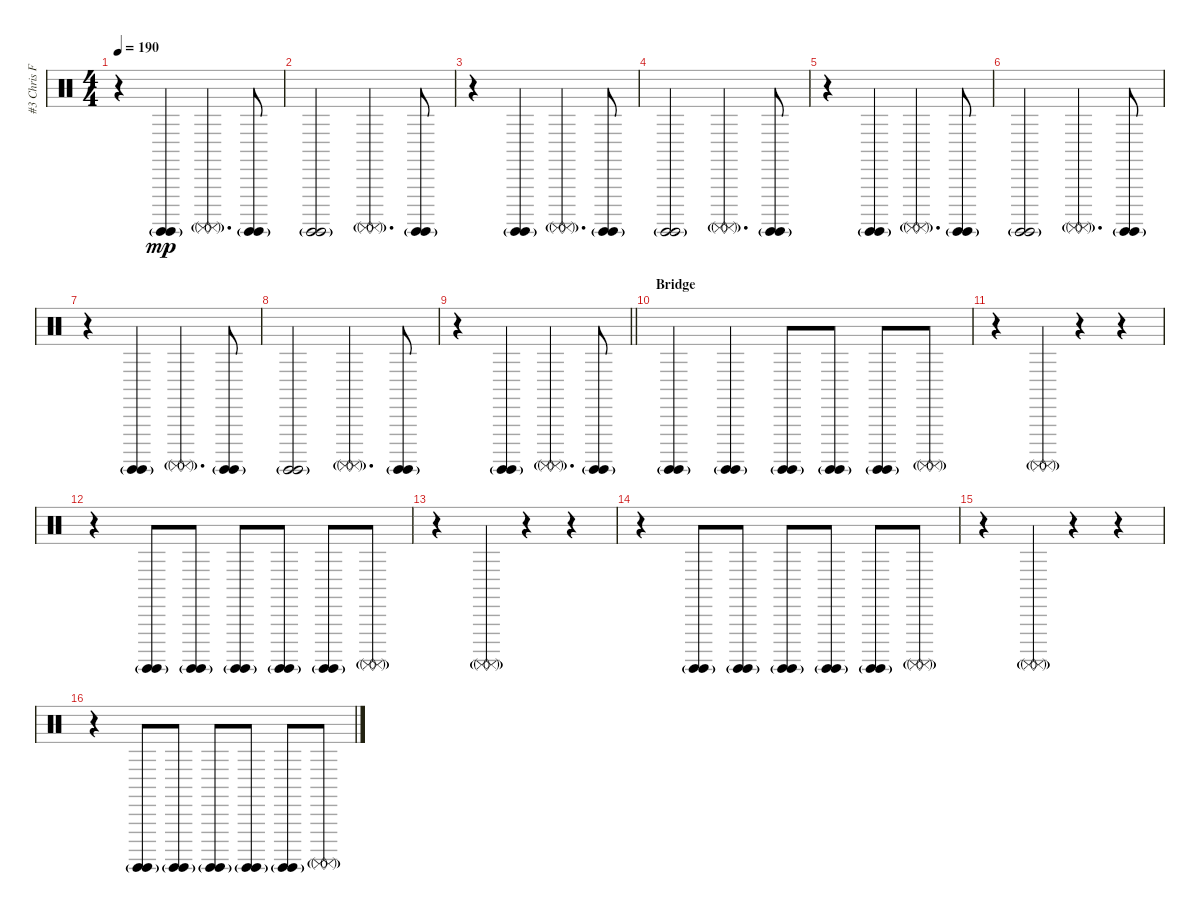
\track ("#3 Chris Fehn" "#3 Chris F") {instrument percussion}
\staff {score}
\articulation defaults
\ts (4 4)
\tempo 190
\clef neutral
\ks c
r.4{dy mp} ("Surdo (hit)"{g} "Surdo (hit)"{g}).4 ("Surdo (mute)"{g} "Surdo (mute)"{g}).4{d} ("Surdo (hit)"{g} "Surdo (hit)"{g}).8 |
("Surdo (hit)"{g} "Surdo (hit)"{g}).2 ("Surdo (mute)"{g} "Surdo (mute)"{g}).4{d} ("Surdo (hit)"{g} "Surdo (hit)"{g}).8 |
r.4 ("Surdo (hit)"{g} "Surdo (hit)"{g}).4 ("Surdo (mute)"{g} "Surdo (mute)"{g}).4{d} ("Surdo (hit)"{g} "Surdo (hit)"{g}).8 |
("Surdo (hit)"{g} "Surdo (hit)"{g}).2 ("Surdo (mute)"{g} "Surdo (mute)"{g}).4{d} ("Surdo (hit)"{g} "Surdo (hit)"{g}).8 |
r.4 ("Surdo (hit)"{g} "Surdo (hit)"{g}).4 ("Surdo (mute)"{g} "Surdo (mute)"{g}).4{d} ("Surdo (hit)"{g} "Surdo (hit)"{g}).8 |
("Surdo (hit)"{g} "Surdo (hit)"{g}).2 ("Surdo (mute)"{g} "Surdo (mute)"{g}).4{d} ("Surdo (hit)"{g} "Surdo (hit)"{g}).8 |
r.4 ("Surdo (hit)"{g} "Surdo (hit)"{g}).4 ("Surdo (mute)"{g} "Surdo (mute)"{g}).4{d} ("Surdo (hit)"{g} "Surdo (hit)"{g}).8 |
("Surdo (hit)"{g} "Surdo (hit)"{g}).2 ("Surdo (mute)"{g} "Surdo (mute)"{g}).4{d} ("Surdo (hit)"{g} "Surdo (hit)"{g}).8 |
\barLineRight lightlight
r.4 ("Surdo (hit)"{g} "Surdo (hit)"{g}).4 ("Surdo (mute)"{g} "Surdo (mute)"{g}).4{d} ("Surdo (hit)"{g} "Surdo (hit)"{g}).8 |
\section ("" "Bridge")
("Surdo (hit)"{g} "Surdo (hit)"{g}).4 ("Surdo (hit)"{g} "Surdo (hit)"{g}).4 ("Surdo (hit)"{g} "Surdo (hit)"{g}).8 ("Surdo (hit)"{g} "Surdo (hit)"{g}).8 ("Surdo (hit)"{g} "Surdo (hit)"{g}).8 ("Surdo (mute)"{g} "Surdo (mute)"{g}).8 |
r.4 ("Surdo (mute)"{g} "Surdo (mute)"{g}).4 r.4 r.4 |
r.4 ("Surdo (hit)"{g} "Surdo (hit)"{g}).8 ("Surdo (hit)"{g} "Surdo (hit)"{g}).8 ("Surdo (hit)"{g} "Surdo (hit)"{g}).8 ("Surdo (hit)"{g} "Surdo (hit)"{g}).8 ("Surdo (hit)"{g} "Surdo (hit)"{g}).8 ("Surdo (mute)"{g} "Surdo (mute)"{g}).8 |
r.4 ("Surdo (mute)"{g} "Surdo (mute)"{g}).4 r.4 r.4 |
r.4 ("Surdo (hit)"{g} "Surdo (hit)"{g}).8 ("Surdo (hit)"{g} "Surdo (hit)"{g}).8 ("Surdo (hit)"{g} "Surdo (hit)"{g}).8 ("Surdo (hit)"{g} "Surdo (hit)"{g}).8 ("Surdo (hit)"{g} "Surdo (hit)"{g}).8 ("Surdo (mute)"{g} "Surdo (mute)"{g}).8 |
r.4 ("Surdo (mute)"{g} "Surdo (mute)"{g}).4 r.4 r.4 |
r.4 ("Surdo (hit)"{g} "Surdo (hit)"{g}).8 ("Surdo (hit)"{g} "Surdo (hit)"{g}).8 ("Surdo (hit)"{g} "Surdo (hit)"{g}).8 ("Surdo (hit)"{g} "Surdo (hit)"{g}).8 ("Surdo (hit)"{g} "Surdo (hit)"{g}).8 ("Surdo (mute)"{g} "Surdo (mute)"{g}).8
